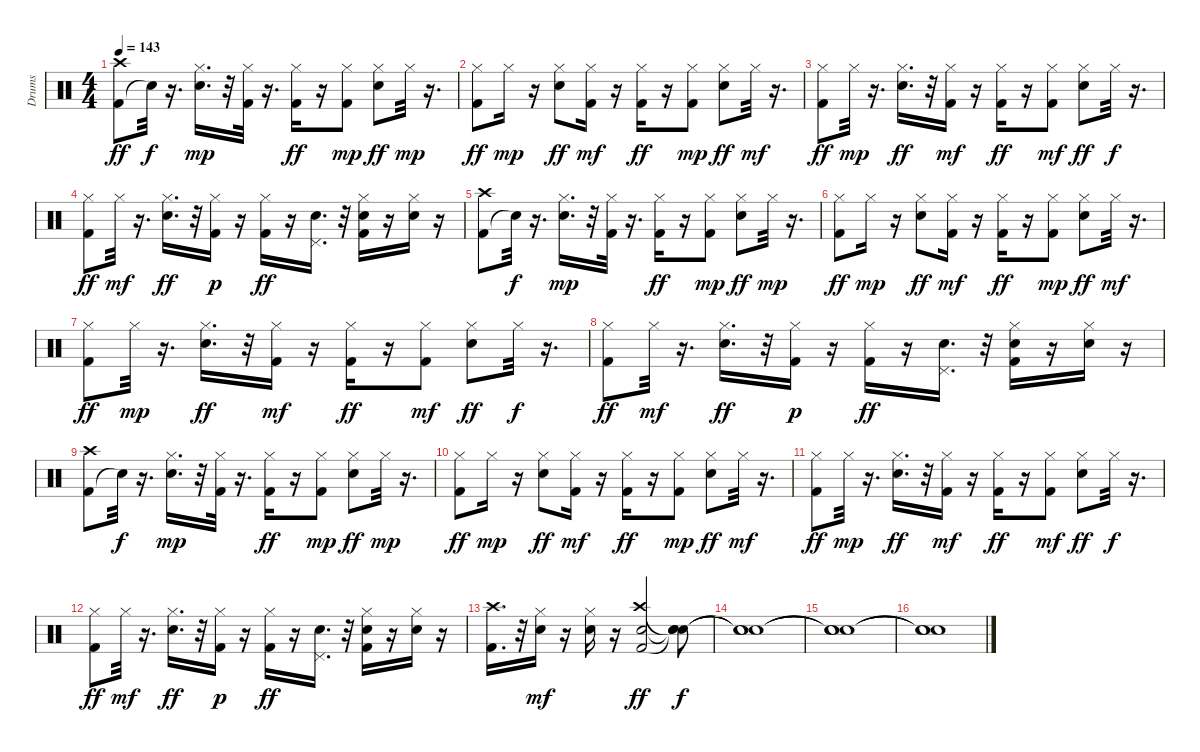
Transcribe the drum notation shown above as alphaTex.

\track ("Drums               " "Drums     ") {instrument percussion}
\staff {score}
\articulation defaults
\ts (4 4)
\tempo 143
\clef neutral
\ks c
("Kick (hit) 2" "Crash high (hit)").8{dy ff} "Snare (hit)"{t}.32{dy f} r.16{d} ("Snare (hit) 2" "Hi-Hat (closed)").16{d dy mp} r.32 ("Kick (hit) 2" "Hi-Hat (closed)").32 r.16{d} ("Kick (hit) 2" "Hi-Hat (closed)").16{dy ff} r.16 ("Kick (hit) 2" "Hi-Hat (closed)").8{dy mp} ("Snare (hit) 2" "Hi-Hat (closed)").8{dy ff} "Hi-Hat (closed)".32{dy mp} r.16{d} |
("Kick (hit) 2" "Hi-Hat (closed)").8{dy ff} "Hi-Hat (closed)".16{dy mp} r.16 ("Snare (hit) 2" "Hi-Hat (closed)").8{dy ff} ("Kick (hit) 2" "Hi-Hat (closed)").16{dy mf} r.16 ("Kick (hit) 2" "Hi-Hat (closed)").16{dy ff} r.16 ("Kick (hit) 2" "Hi-Hat (closed)").8{dy mp} ("Snare (hit) 2" "Hi-Hat (closed)").8{dy ff} "Hi-Hat (closed)".32{dy mf} r.16{d} |
("Kick (hit) 2" "Hi-Hat (closed)").8{dy ff} "Hi-Hat (closed)".32{dy mp} r.16{d} ("Snare (hit) 2" "Hi-Hat (closed)").16{d dy ff} r.32 ("Kick (hit) 2" "Hi-Hat (closed)").16{dy mf} r.16 ("Kick (hit) 2" "Hi-Hat (closed)").16{dy ff} r.16 ("Kick (hit) 2" "Hi-Hat (closed)").8{dy mf} ("Snare (hit) 2" "Hi-Hat (closed)").8{dy ff} "Hi-Hat (closed)".32{dy f} r.16{d} |
("Kick (hit) 2" "Hi-Hat (closed)").8{dy ff} "Hi-Hat (closed)".32{dy mf} r.16{d} ("Snare (hit) 2" "Hi-Hat (closed)").16{d dy ff} r.32 ("Kick (hit) 2" "Hi-Hat (closed)").16{dy p} r.16 ("Kick (hit) 2" "Hi-Hat (closed)").16{dy ff} r.16 ("Snare (hit) 2" "Pedal Hi-Hat (hit)").16{d} r.32 ("Kick (hit) 2" "Snare (hit) 2" "Hi-Hat (closed)").16 r.16 ("Snare (hit) 2" "Hi-Hat (closed)").16 r.16 |
("Kick (hit) 2" "Crash high (hit)").8 "Snare (hit)"{t}.32{dy f} r.16{d} ("Snare (hit) 2" "Hi-Hat (closed)").16{d dy mp} r.32 ("Kick (hit) 2" "Hi-Hat (closed)").32 r.16{d} ("Kick (hit) 2" "Hi-Hat (closed)").16{dy ff} r.16 ("Kick (hit) 2" "Hi-Hat (closed)").8{dy mp} ("Snare (hit) 2" "Hi-Hat (closed)").8{dy ff} "Hi-Hat (closed)".32{dy mp} r.16{d} |
("Kick (hit) 2" "Hi-Hat (closed)").8{dy ff} "Hi-Hat (closed)".16{dy mp} r.16 ("Snare (hit) 2" "Hi-Hat (closed)").8{dy ff} ("Kick (hit) 2" "Hi-Hat (closed)").16{dy mf} r.16 ("Kick (hit) 2" "Hi-Hat (closed)").16{dy ff} r.16 ("Kick (hit) 2" "Hi-Hat (closed)").8{dy mp} ("Snare (hit) 2" "Hi-Hat (closed)").8{dy ff} "Hi-Hat (closed)".32{dy mf} r.16{d} |
("Kick (hit) 2" "Hi-Hat (closed)").8{dy ff} "Hi-Hat (closed)".32{dy mp} r.16{d} ("Snare (hit) 2" "Hi-Hat (closed)").16{d dy ff} r.32 ("Kick (hit) 2" "Hi-Hat (closed)").16{dy mf} r.16 ("Kick (hit) 2" "Hi-Hat (closed)").16{dy ff} r.16 ("Kick (hit) 2" "Hi-Hat (closed)").8{dy mf} ("Snare (hit) 2" "Hi-Hat (closed)").8{dy ff} "Hi-Hat (closed)".32{dy f} r.16{d} |
("Kick (hit) 2" "Hi-Hat (closed)").8{dy ff} "Hi-Hat (closed)".32{dy mf} r.16{d} ("Snare (hit) 2" "Hi-Hat (closed)").16{d dy ff} r.32 ("Kick (hit) 2" "Hi-Hat (closed)").16{dy p} r.16 ("Kick (hit) 2" "Hi-Hat (closed)").16{dy ff} r.16 ("Snare (hit) 2" "Pedal Hi-Hat (hit)").16{d} r.32 ("Kick (hit) 2" "Snare (hit) 2" "Hi-Hat (closed)").16 r.16 ("Snare (hit) 2" "Hi-Hat (closed)").16 r.16 |
("Kick (hit) 2" "Crash high (hit)").8 "Snare (hit)"{t}.32{dy f} r.16{d} ("Snare (hit) 2" "Hi-Hat (closed)").16{d dy mp} r.32 ("Kick (hit) 2" "Hi-Hat (closed)").32 r.16{d} ("Kick (hit) 2" "Hi-Hat (closed)").16{dy ff} r.16 ("Kick (hit) 2" "Hi-Hat (closed)").8{dy mp} ("Snare (hit) 2" "Hi-Hat (closed)").8{dy ff} "Hi-Hat (closed)".32{dy mp} r.16{d} |
("Kick (hit) 2" "Hi-Hat (closed)").8{dy ff} "Hi-Hat (closed)".16{dy mp} r.16 ("Snare (hit) 2" "Hi-Hat (closed)").8{dy ff} ("Kick (hit) 2" "Hi-Hat (closed)").16{dy mf} r.16 ("Kick (hit) 2" "Hi-Hat (closed)").16{dy ff} r.16 ("Kick (hit) 2" "Hi-Hat (closed)").8{dy mp} ("Snare (hit) 2" "Hi-Hat (closed)").8{dy ff} "Hi-Hat (closed)".32{dy mf} r.16{d} |
("Kick (hit) 2" "Hi-Hat (closed)").8{dy ff} "Hi-Hat (closed)".32{dy mp} r.16{d} ("Snare (hit) 2" "Hi-Hat (closed)").16{d dy ff} r.32 ("Kick (hit) 2" "Hi-Hat (closed)").16{dy mf} r.16 ("Kick (hit) 2" "Hi-Hat (closed)").16{dy ff} r.16 ("Kick (hit) 2" "Hi-Hat (closed)").8{dy mf} ("Snare (hit) 2" "Hi-Hat (closed)").8{dy ff} "Hi-Hat (closed)".32{dy f} r.16{d} |
("Kick (hit) 2" "Hi-Hat (closed)").8{dy ff} "Hi-Hat (closed)".32{dy mf} r.16{d} ("Snare (hit) 2" "Hi-Hat (closed)").16{d dy ff} r.32 ("Kick (hit) 2" "Hi-Hat (closed)").16{dy p} r.16 ("Kick (hit) 2" "Hi-Hat (closed)").16{dy ff} r.16 ("Snare (hit) 2" "Pedal Hi-Hat (hit)").16{d} r.32 ("Kick (hit) 2" "Snare (hit) 2" "Hi-Hat (closed)").16 r.16 ("Snare (hit) 2" "Hi-Hat (closed)").16 r.16 |
("Kick (hit) 2" "Crash high (hit)").16{d} r.32 ("Snare (hit) 2" "Hi-Hat (closed)").16{dy mf} r.16 ("Snare (hit) 2" "Hi-Hat (closed)").16 r.16 ("Kick (hit) 2" "Snare (hit) 2" "Crash high (hit)").2{dy ff} ("Snare (hit)"{t} "Snare (hit)"{t} "Snare (hit)"{t}).8{dy f} |
("Snare (hit)"{t} "Snare (hit)"{t} "Snare (hit)"{t}).1 |
("Snare (hit)"{t} "Snare (hit)"{t} "Snare (hit)"{t}).1 |
("Snare (hit)"{t} "Snare (hit)"{t} "Snare (hit)"{t}).1
